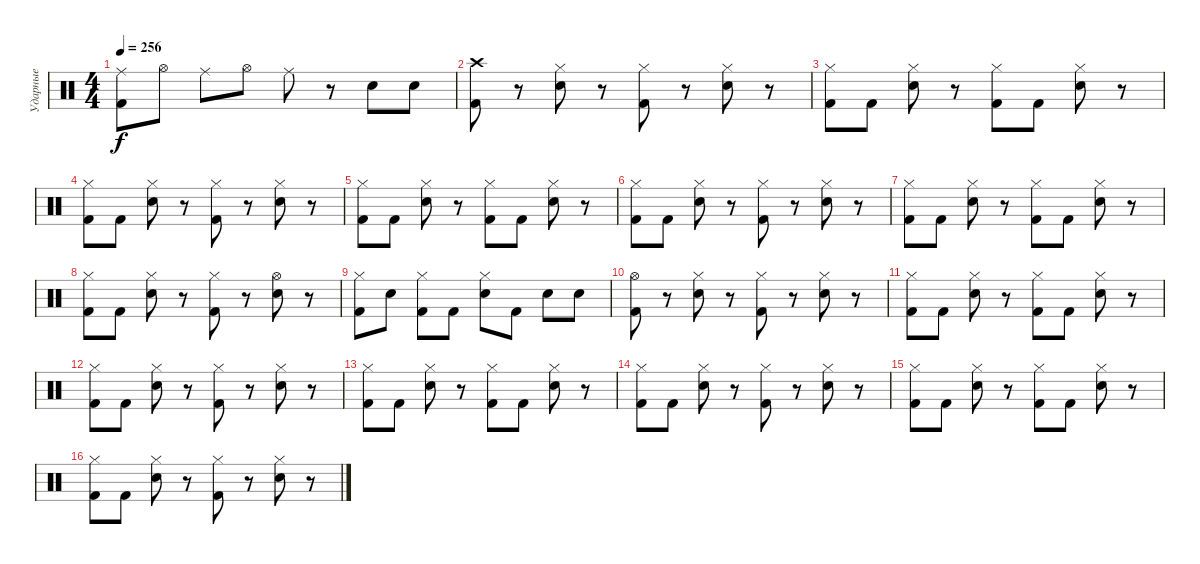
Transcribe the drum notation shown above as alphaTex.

\track ("Ударные" "Ударные") {instrument percussion}
\staff {score}
\articulation defaults
\ts (4 4)
\tempo 256
\clef neutral
\ks c
("Ride (middle)" "Kick (hit) 2").8{dy f} "Hi-Hat (open)".8 "Ride (middle)".8 "Hi-Hat (open)".8 "Ride (middle)".8 r.8 "Electric Snare (hit)".8 "Electric Snare (hit)".8 |
("Crash high (hit)" "Kick (hit) 2").8 r.8 ("Hi-Hat (closed)" "Electric Snare (hit)").8 r.8 ("Hi-Hat (closed)" "Kick (hit) 2").8 r.8 ("Hi-Hat (closed)" "Electric Snare (hit)").8 r.8 |
("Hi-Hat (closed)" "Kick (hit) 2").8 "Kick (hit) 2".8 ("Hi-Hat (closed)" "Electric Snare (hit)").8 r.8 ("Hi-Hat (closed)" "Kick (hit) 2").8 "Kick (hit) 2".8 ("Hi-Hat (closed)" "Electric Snare (hit)").8 r.8 |
("Hi-Hat (closed)" "Kick (hit) 2").8 "Kick (hit) 2".8 ("Hi-Hat (closed)" "Electric Snare (hit)").8 r.8 ("Hi-Hat (closed)" "Kick (hit) 2").8 r.8 ("Hi-Hat (closed)" "Electric Snare (hit)").8 r.8 |
("Hi-Hat (closed)" "Kick (hit) 2").8 "Kick (hit) 2".8 ("Hi-Hat (closed)" "Electric Snare (hit)").8 r.8 ("Hi-Hat (closed)" "Kick (hit) 2").8 "Kick (hit) 2".8 ("Hi-Hat (closed)" "Electric Snare (hit)").8 r.8 |
("Hi-Hat (closed)" "Kick (hit) 2").8 "Kick (hit) 2".8 ("Hi-Hat (closed)" "Electric Snare (hit)").8 r.8 ("Hi-Hat (closed)" "Kick (hit) 2").8 r.8 ("Hi-Hat (closed)" "Electric Snare (hit)").8 r.8 |
("Hi-Hat (closed)" "Kick (hit) 2").8 "Kick (hit) 2".8 ("Hi-Hat (closed)" "Electric Snare (hit)").8 r.8 ("Hi-Hat (closed)" "Kick (hit) 2").8 "Kick (hit) 2".8 ("Hi-Hat (closed)" "Electric Snare (hit)").8 r.8 |
("Hi-Hat (closed)" "Kick (hit) 2").8 "Kick (hit) 2".8 ("Hi-Hat (closed)" "Electric Snare (hit)").8 r.8 ("Hi-Hat (closed)" "Kick (hit) 2").8 r.8 ("Hi-Hat (open)" "Electric Snare (hit)").8 r.8 |
("Hi-Hat (closed)" "Kick (hit) 2").8 "Electric Snare (hit)".8 ("Hi-Hat (closed)" "Kick (hit) 2").8 "Kick (hit) 2".8 ("Hi-Hat (closed)" "Electric Snare (hit)").8 "Kick (hit) 2".8 "Electric Snare (hit)".8 "Electric Snare (hit)".8 |
("Hi-Hat (open)" "Kick (hit) 2").8 r.8 ("Hi-Hat (closed)" "Electric Snare (hit)").8 r.8 ("Hi-Hat (closed)" "Kick (hit) 2").8 r.8 ("Hi-Hat (closed)" "Electric Snare (hit)").8 r.8 |
("Hi-Hat (closed)" "Kick (hit) 2").8 "Kick (hit) 2".8 ("Hi-Hat (closed)" "Electric Snare (hit)").8 r.8 ("Hi-Hat (closed)" "Kick (hit) 2").8 "Kick (hit) 2".8 ("Hi-Hat (closed)" "Electric Snare (hit)").8 r.8 |
("Hi-Hat (closed)" "Kick (hit) 2").8 "Kick (hit) 2".8 ("Hi-Hat (closed)" "Electric Snare (hit)").8 r.8 ("Hi-Hat (closed)" "Kick (hit) 2").8 r.8 ("Hi-Hat (closed)" "Electric Snare (hit)").8 r.8 |
("Hi-Hat (closed)" "Kick (hit) 2").8 "Kick (hit) 2".8 ("Hi-Hat (closed)" "Electric Snare (hit)").8 r.8 ("Hi-Hat (closed)" "Kick (hit) 2").8 "Kick (hit) 2".8 ("Hi-Hat (closed)" "Electric Snare (hit)").8 r.8 |
("Hi-Hat (closed)" "Kick (hit) 2").8 "Kick (hit) 2".8 ("Hi-Hat (closed)" "Electric Snare (hit)").8 r.8 ("Hi-Hat (closed)" "Kick (hit) 2").8 r.8 ("Hi-Hat (closed)" "Electric Snare (hit)").8 r.8 |
("Hi-Hat (closed)" "Kick (hit) 2").8 "Kick (hit) 2".8 ("Hi-Hat (closed)" "Electric Snare (hit)").8 r.8 ("Hi-Hat (closed)" "Kick (hit) 2").8 "Kick (hit) 2".8 ("Hi-Hat (closed)" "Electric Snare (hit)").8 r.8 |
("Hi-Hat (closed)" "Kick (hit) 2").8 "Kick (hit) 2".8 ("Hi-Hat (closed)" "Electric Snare (hit)").8 r.8 ("Hi-Hat (closed)" "Kick (hit) 2").8 r.8 ("Hi-Hat (closed)" "Electric Snare (hit)").8 r.8
